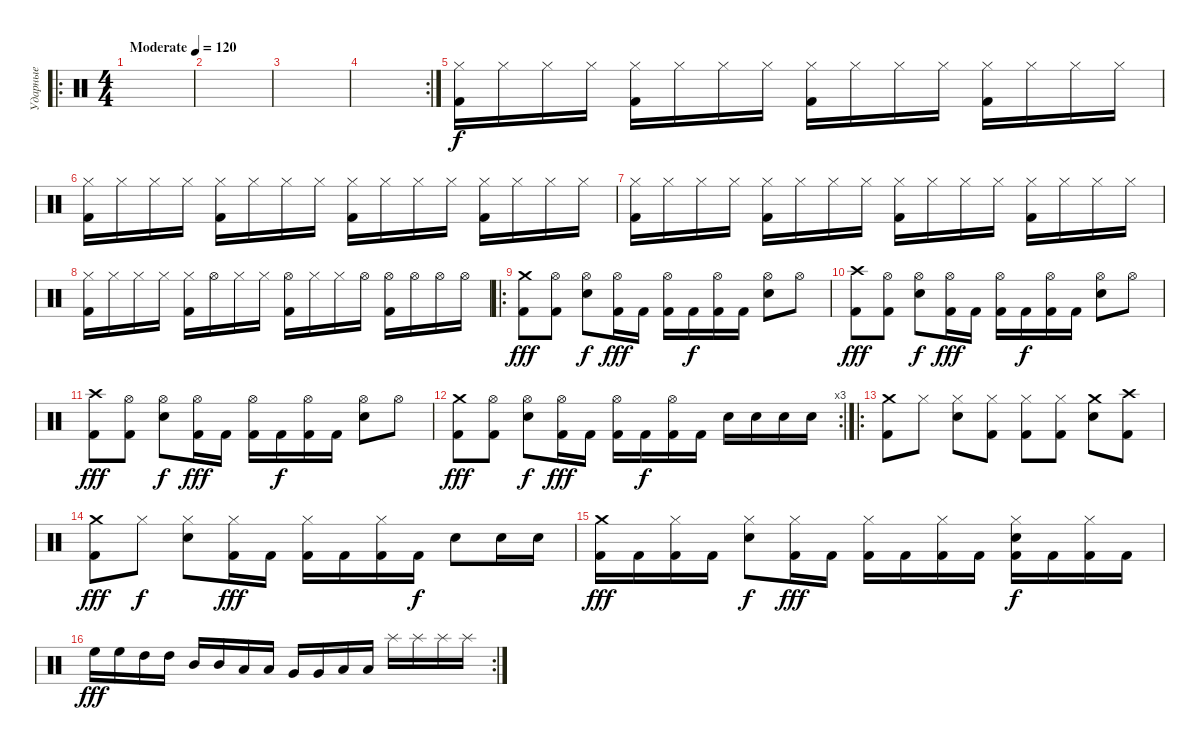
\track ("Ударные" "Ударные") {instrument percussion}
\staff {score}
\articulation defaults
\ro
\ts (4 4)
\tempo (120 "Moderate")
\clef neutral
\ks c
|
|
|
\rc 2
|
("Hi-Hat (closed)" "Kick (hit) 2").16 "Hi-Hat (closed)".16 "Hi-Hat (closed)".16 "Hi-Hat (closed)".16 ("Hi-Hat (closed)" "Kick (hit) 2").16 "Hi-Hat (closed)".16 "Hi-Hat (closed)".16 "Hi-Hat (closed)".16 ("Hi-Hat (closed)" "Kick (hit) 2").16 "Hi-Hat (closed)".16 "Hi-Hat (closed)".16 "Hi-Hat (closed)".16 ("Hi-Hat (closed)" "Kick (hit) 2").16 "Hi-Hat (closed)".16 "Hi-Hat (closed)".16 "Hi-Hat (closed)".16 |
("Hi-Hat (closed)" "Kick (hit) 2").16 "Hi-Hat (closed)".16 "Hi-Hat (closed)".16 "Hi-Hat (closed)".16 ("Hi-Hat (closed)" "Kick (hit) 2").16 "Hi-Hat (closed)".16 "Hi-Hat (closed)".16 "Hi-Hat (closed)".16 ("Hi-Hat (closed)" "Kick (hit) 2").16 "Hi-Hat (closed)".16 "Hi-Hat (closed)".16 "Hi-Hat (closed)".16 ("Hi-Hat (closed)" "Kick (hit) 2").16 "Hi-Hat (closed)".16 "Hi-Hat (closed)".16 "Hi-Hat (closed)".16 |
("Hi-Hat (closed)" "Kick (hit) 2").16 "Hi-Hat (closed)".16 "Hi-Hat (closed)".16 "Hi-Hat (closed)".16 ("Hi-Hat (closed)" "Kick (hit) 2").16 "Hi-Hat (closed)".16 "Hi-Hat (closed)".16 "Hi-Hat (closed)".16 ("Hi-Hat (closed)" "Kick (hit) 2").16 "Hi-Hat (closed)".16 "Hi-Hat (closed)".16 "Hi-Hat (closed)".16 ("Hi-Hat (closed)" "Kick (hit) 2").16 "Hi-Hat (closed)".16 "Hi-Hat (closed)".16 "Hi-Hat (closed)".16 |
("Hi-Hat (closed)" "Kick (hit) 2").16 "Hi-Hat (closed)".16 "Hi-Hat (closed)".16 "Hi-Hat (closed)".16 ("Hi-Hat (closed)" "Kick (hit) 2").16 "Hi-Hat (open)".16 "Hi-Hat (closed)".16 "Hi-Hat (closed)".16 ("Hi-Hat (open)" "Kick (hit) 2").16 "Hi-Hat (closed)".16 "Hi-Hat (closed)".16 "Hi-Hat (open)".16 ("Hi-Hat (open)" "Kick (hit) 2").16 "Hi-Hat (open)".16 "Hi-Hat (open)".16 "Hi-Hat (open)".16 |
\ro
("Kick (hit) 2" "Crash medium (hit)").8{dy fff} ("Kick (hit) 2" "Hi-Hat (open)").8 ("Electric Snare (hit)" "Hi-Hat (open)").8{dy f} ("Kick (hit) 2" "Hi-Hat (open)").16{dy fff} "Kick (hit) 2".16 ("Kick (hit) 2" "Hi-Hat (open)").16 "Kick (hit) 2".16{dy f} ("Kick (hit) 2" "Hi-Hat (open)").16 "Kick (hit) 2".16 ("Electric Snare (hit)" "Hi-Hat (open)").8 "Hi-Hat (open)".8 |
("Kick (hit) 2" "Crash high (hit)").8{dy fff} ("Kick (hit) 2" "Hi-Hat (open)").8 ("Electric Snare (hit)" "Hi-Hat (open)").8{dy f} ("Kick (hit) 2" "Hi-Hat (open)").16{dy fff} "Kick (hit) 2".16 ("Kick (hit) 2" "Hi-Hat (open)").16 "Kick (hit) 2".16{dy f} ("Kick (hit) 2" "Hi-Hat (open)").16 "Kick (hit) 2".16 ("Electric Snare (hit)" "Hi-Hat (open)").8 "Hi-Hat (open)".8 |
("Kick (hit) 2" "Crash high (hit)").8{dy fff} ("Kick (hit) 2" "Hi-Hat (open)").8 ("Electric Snare (hit)" "Hi-Hat (open)").8{dy f} ("Kick (hit) 2" "Hi-Hat (open)").16{dy fff} "Kick (hit) 2".16 ("Kick (hit) 2" "Hi-Hat (open)").16 "Kick (hit) 2".16{dy f} ("Kick (hit) 2" "Hi-Hat (open)").16 "Kick (hit) 2".16 ("Electric Snare (hit)" "Hi-Hat (open)").8 "Hi-Hat (open)".8 |
\rc 3
("Kick (hit) 2" "Crash medium (hit)").8{dy fff} ("Kick (hit) 2" "Hi-Hat (open)").8 ("Electric Snare (hit)" "Hi-Hat (open)").8{dy f} ("Kick (hit) 2" "Hi-Hat (open)").16{dy fff} "Kick (hit) 2".16 ("Kick (hit) 2" "Hi-Hat (open)").16 "Kick (hit) 2".16{dy f} ("Kick (hit) 2" "Hi-Hat (open)").16 "Kick (hit) 2".16 "Electric Snare (hit)".16 "Electric Snare (hit)".16 "Electric Snare (hit)".16 "Electric Snare (hit)".16 |
\ro
("Kick (hit) 2" "Crash medium (hit)").8 "Hi-Hat (closed)".8 ("Electric Snare (hit)" "Hi-Hat (closed)").8 ("Kick (hit) 2" "Hi-Hat (closed)").8 ("Kick (hit) 2" "Hi-Hat (closed)").8 ("Kick (hit) 2" "Hi-Hat (closed)").8 ("Electric Snare (hit)" "Crash medium (hit)").8 ("Kick (hit) 2" "Crash high (hit)").8 |
("Kick (hit) 2" "Crash medium (hit)").8{dy fff} "Hi-Hat (closed)".8{dy f} ("Electric Snare (hit)" "Hi-Hat (closed)").8 ("Kick (hit) 2" "Hi-Hat (closed)").16{dy fff} "Kick (hit) 2".16 ("Kick (hit) 2" "Hi-Hat (closed)").16 "Kick (hit) 2".16 ("Kick (hit) 2" "Hi-Hat (closed)").16 "Kick (hit) 2".16{dy f} "Electric Snare (hit)".8 "Electric Snare (hit)".16 "Electric Snare (hit)".16 |
("Kick (hit) 2" "Crash medium (hit)").16{dy fff} "Kick (hit) 2".16 ("Kick (hit) 2" "Hi-Hat (closed)").16 "Kick (hit) 2".16 ("Electric Snare (hit)" "Hi-Hat (closed)").8{dy f} ("Kick (hit) 2" "Hi-Hat (closed)").16{dy fff} "Kick (hit) 2".16 ("Kick (hit) 2" "Hi-Hat (closed)").16 "Kick (hit) 2".16 ("Kick (hit) 2" "Hi-Hat (closed)").16 "Kick (hit) 2".16 ("Kick (hit) 2" "Electric Snare (hit)" "Hi-Hat (closed)").16{dy f} "Kick (hit) 2".16 ("Kick (hit) 2" "Hi-Hat (closed)").16 "Kick (hit) 2".16 |
\rc 2 "High Floor Tom (hit)".16{dy fff} "High Floor Tom (hit)".16 "High Tom (hit)".16 "High Tom (hit)".16 "Mid Tom (hit)".16 "Mid Tom (hit)".16 "Low Tom (hit)".16 "Low Tom (hit)".16 "Very Low Tom (hit)".16 "Very Low Tom (hit)".16 "Low Floor Tom (hit)".16 "Low Floor Tom (hit)".16 "Splash (hit)".16 "Splash (hit)".16 "Splash (hit)".16 "Splash (hit)".16
